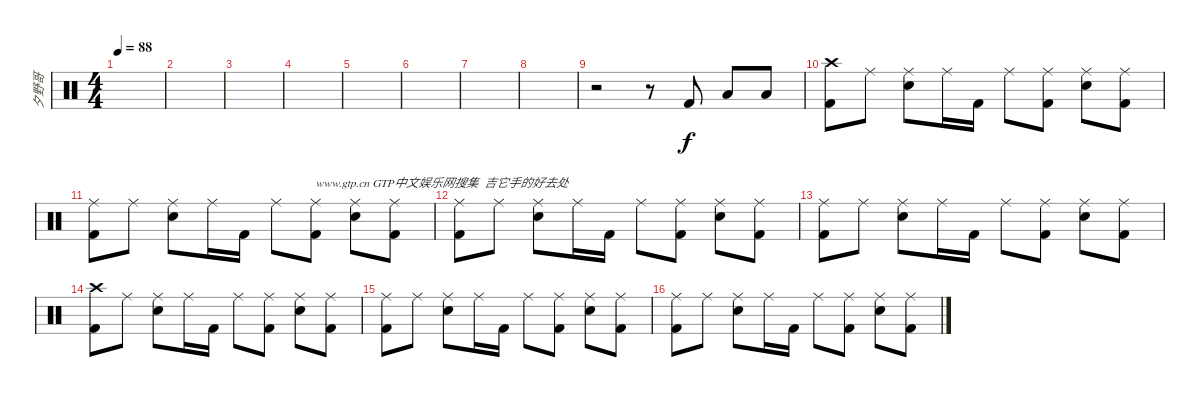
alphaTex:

\track ("夕野哥" "夕野哥") {instrument percussion}
\staff {score}
\articulation defaults
\ts (4 4)
\tempo 88
\clef neutral
\ks c
|
|
|
|
|
|
|
|
r.2 r.8 "Kick (hit) 2".8 "Low Floor Tom (hit)".8 "Low Tom (hit)".8 |
("Crash high (hit)" "Kick (hit) 2").8 "Ride (middle)".8 ("Ride (middle)" "Electric Snare (hit)").8 "Ride (middle)".16 "Kick (hit) 2".16 "Ride (middle)".8 ("Ride (middle)" "Kick (hit) 2").8 ("Ride (middle)" "Electric Snare (hit)").8 ("Ride (middle)" "Kick (hit) 2").8 |
("Ride (middle)" "Kick (hit) 2").8 "Ride (middle)".8 ("Ride (middle)" "Electric Snare (hit)").8 "Ride (middle)".16 "Kick (hit) 2".16 "Ride (middle)".8 ("Ride (middle)" "Kick (hit) 2").8{txt "www.gtp.cn GTP中文娱乐网搜集  吉它手的好去处"} ("Ride (middle)" "Electric Snare (hit)").8 ("Ride (middle)" "Kick (hit) 2").8 |
("Ride (middle)" "Kick (hit) 2").8 "Ride (middle)".8 ("Ride (middle)" "Electric Snare (hit)").8 "Ride (middle)".16 "Kick (hit) 2".16 "Ride (middle)".8 ("Ride (middle)" "Kick (hit) 2").8 ("Ride (middle)" "Electric Snare (hit)").8 ("Ride (middle)" "Kick (hit) 2").8 |
("Ride (middle)" "Kick (hit) 2").8 "Ride (middle)".8 ("Ride (middle)" "Electric Snare (hit)").8 "Ride (middle)".16 "Kick (hit) 2".16 "Ride (middle)".8 ("Ride (middle)" "Kick (hit) 2").8 ("Ride (middle)" "Electric Snare (hit)").8 ("Ride (middle)" "Kick (hit) 2").8 |
("Crash high (hit)" "Kick (hit) 2").8 "Ride (middle)".8 ("Ride (middle)" "Electric Snare (hit)").8 "Ride (middle)".16 "Kick (hit) 2".16 "Ride (middle)".8 ("Ride (middle)" "Kick (hit) 2").8 ("Ride (middle)" "Electric Snare (hit)").8 ("Ride (middle)" "Kick (hit) 2").8 |
("Ride (middle)" "Kick (hit) 2").8 "Ride (middle)".8 ("Ride (middle)" "Electric Snare (hit)").8 "Ride (middle)".16 "Kick (hit) 2".16 "Ride (middle)".8 ("Ride (middle)" "Kick (hit) 2").8 ("Ride (middle)" "Electric Snare (hit)").8 ("Ride (middle)" "Kick (hit) 2").8 |
("Ride (middle)" "Kick (hit) 2").8 "Ride (middle)".8 ("Ride (middle)" "Electric Snare (hit)").8 "Ride (middle)".16 "Kick (hit) 2".16 "Ride (middle)".8 ("Ride (middle)" "Kick (hit) 2").8 ("Ride (middle)" "Electric Snare (hit)").8 ("Ride (middle)" "Kick (hit) 2").8
